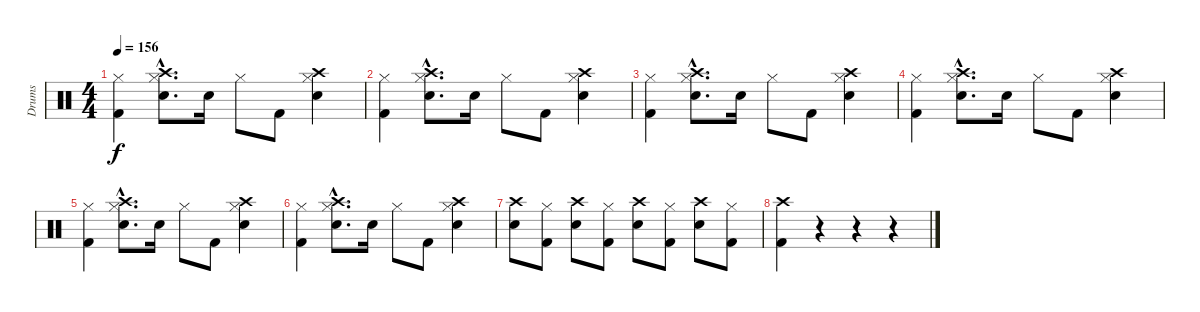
\track ("Drums" "Drums") {instrument percussion}
\staff {score}
\articulation defaults
\ts (4 4)
\tempo 156
\clef neutral
\ks c
("Hi-Hat (closed)" "Kick (hit) 2").4{dy f} ("Crash high (hit)"{hac} "Hi-Hat (closed)"{hac} "Snare (hit) 2"{hac}).8{d} "Snare (hit) 2".16 "Hi-Hat (closed)".8 "Kick (hit) 2".8 ("Crash high (hit)" "Hi-Hat (closed)" "Snare (hit) 2").4 |
("Hi-Hat (closed)" "Kick (hit) 2").4 ("Crash high (hit)"{hac} "Hi-Hat (closed)"{hac} "Snare (hit) 2"{hac}).8{d} "Snare (hit) 2".16 "Hi-Hat (closed)".8 "Kick (hit) 2".8 ("Crash high (hit)" "Hi-Hat (closed)" "Snare (hit) 2").4 |
("Hi-Hat (closed)" "Kick (hit) 2").4 ("Crash high (hit)"{hac} "Hi-Hat (closed)"{hac} "Snare (hit) 2"{hac}).8{d} "Snare (hit) 2".16 "Hi-Hat (closed)".8 "Kick (hit) 2".8 ("Crash high (hit)" "Hi-Hat (closed)" "Snare (hit) 2").4 |
("Hi-Hat (closed)" "Kick (hit) 2").4 ("Crash high (hit)"{hac} "Hi-Hat (closed)"{hac} "Snare (hit) 2"{hac}).8{d} "Snare (hit) 2".16 "Hi-Hat (closed)".8 "Kick (hit) 2".8 ("Crash high (hit)" "Hi-Hat (closed)" "Snare (hit) 2").4 |
("Hi-Hat (closed)" "Kick (hit) 2").4 ("Crash high (hit)"{hac} "Hi-Hat (closed)"{hac} "Snare (hit) 2"{hac}).8{d} "Snare (hit) 2".16 "Hi-Hat (closed)".8 "Kick (hit) 2".8 ("Crash high (hit)" "Hi-Hat (closed)" "Snare (hit) 2").4 |
("Hi-Hat (closed)" "Kick (hit) 2").4 ("Crash high (hit)"{hac} "Hi-Hat (closed)"{hac} "Snare (hit) 2"{hac}).8{d} "Snare (hit) 2".16 "Hi-Hat (closed)".8 "Kick (hit) 2".8 ("Crash high (hit)" "Hi-Hat (closed)" "Snare (hit) 2").4 |
("Crash high (hit)" "Snare (hit) 2").8 ("Hi-Hat (closed)" "Kick (hit) 2").8 ("Crash high (hit)" "Snare (hit) 2").8 ("Hi-Hat (closed)" "Kick (hit) 2").8 ("Crash high (hit)" "Snare (hit) 2").8 ("Hi-Hat (closed)" "Kick (hit) 2").8 ("Crash high (hit)" "Snare (hit) 2").8 ("Hi-Hat (closed)" "Kick (hit) 2").8 |
("Crash high (hit)" "Kick (hit) 2").4 r.4 r.4 r.4
